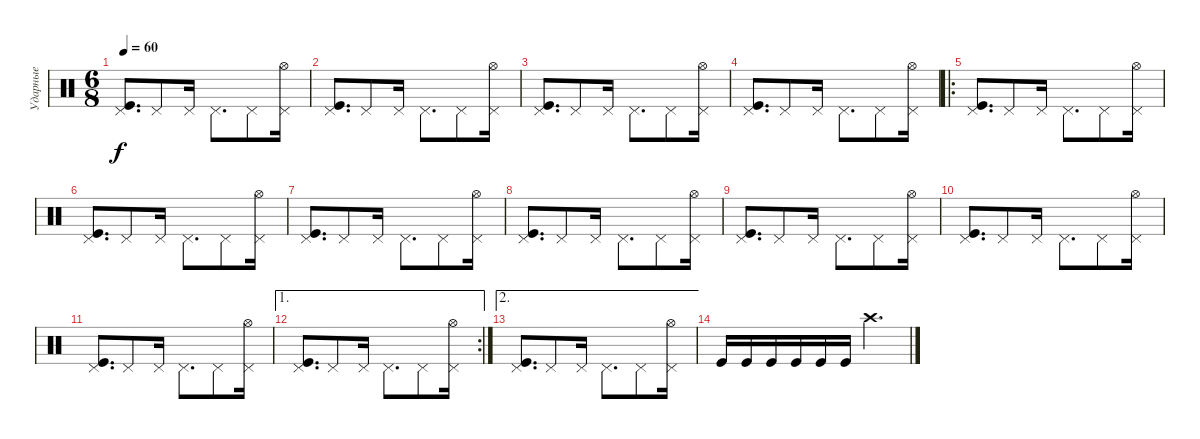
\track ("Ударные" "Ударные") {instrument percussion}
\staff {score}
\articulation defaults
\ts (6 8)
\tempo 60
\clef neutral
\ks c
("Pedal Hi-Hat (hit)" "Kick (hit)").8{d dy f} "Pedal Hi-Hat (hit)".8 "Pedal Hi-Hat (hit)".16 "Pedal Hi-Hat (hit)".8{d} "Pedal Hi-Hat (hit)".8 ("Pedal Hi-Hat (hit)" "Hi-Hat (open)").16 |
("Pedal Hi-Hat (hit)" "Kick (hit)").8{d} "Pedal Hi-Hat (hit)".8 "Pedal Hi-Hat (hit)".16 "Pedal Hi-Hat (hit)".8{d} "Pedal Hi-Hat (hit)".8 ("Pedal Hi-Hat (hit)" "Hi-Hat (open)").16 |
("Pedal Hi-Hat (hit)" "Kick (hit)").8{d} "Pedal Hi-Hat (hit)".8 "Pedal Hi-Hat (hit)".16 "Pedal Hi-Hat (hit)".8{d} "Pedal Hi-Hat (hit)".8 ("Pedal Hi-Hat (hit)" "Hi-Hat (open)").16 |
("Pedal Hi-Hat (hit)" "Kick (hit)").8{d} "Pedal Hi-Hat (hit)".8 "Pedal Hi-Hat (hit)".16 "Pedal Hi-Hat (hit)".8{d} "Pedal Hi-Hat (hit)".8 ("Pedal Hi-Hat (hit)" "Hi-Hat (open)").16 |
\ro
("Pedal Hi-Hat (hit)" "Kick (hit)").8{d} "Pedal Hi-Hat (hit)".8 "Pedal Hi-Hat (hit)".16 "Pedal Hi-Hat (hit)".8{d} "Pedal Hi-Hat (hit)".8 ("Pedal Hi-Hat (hit)" "Hi-Hat (open)").16 |
("Pedal Hi-Hat (hit)" "Kick (hit)").8{d} "Pedal Hi-Hat (hit)".8 "Pedal Hi-Hat (hit)".16 "Pedal Hi-Hat (hit)".8{d} "Pedal Hi-Hat (hit)".8 ("Pedal Hi-Hat (hit)" "Hi-Hat (open)").16 |
("Pedal Hi-Hat (hit)" "Kick (hit)").8{d} "Pedal Hi-Hat (hit)".8 "Pedal Hi-Hat (hit)".16 "Pedal Hi-Hat (hit)".8{d} "Pedal Hi-Hat (hit)".8 ("Pedal Hi-Hat (hit)" "Hi-Hat (open)").16 |
("Pedal Hi-Hat (hit)" "Kick (hit)").8{d} "Pedal Hi-Hat (hit)".8 "Pedal Hi-Hat (hit)".16 "Pedal Hi-Hat (hit)".8{d} "Pedal Hi-Hat (hit)".8 ("Pedal Hi-Hat (hit)" "Hi-Hat (open)").16 |
("Pedal Hi-Hat (hit)" "Kick (hit)").8{d} "Pedal Hi-Hat (hit)".8 "Pedal Hi-Hat (hit)".16 "Pedal Hi-Hat (hit)".8{d} "Pedal Hi-Hat (hit)".8 ("Pedal Hi-Hat (hit)" "Hi-Hat (open)").16 |
("Pedal Hi-Hat (hit)" "Kick (hit)").8{d} "Pedal Hi-Hat (hit)".8 "Pedal Hi-Hat (hit)".16 "Pedal Hi-Hat (hit)".8{d} "Pedal Hi-Hat (hit)".8 ("Pedal Hi-Hat (hit)" "Hi-Hat (open)").16 |
("Pedal Hi-Hat (hit)" "Kick (hit)").8{d} "Pedal Hi-Hat (hit)".8 "Pedal Hi-Hat (hit)".16 "Pedal Hi-Hat (hit)".8{d} "Pedal Hi-Hat (hit)".8 ("Pedal Hi-Hat (hit)" "Hi-Hat (open)").16 |
\ae 1
\rc 2
("Pedal Hi-Hat (hit)" "Kick (hit)").8{d} "Pedal Hi-Hat (hit)".8 "Pedal Hi-Hat (hit)".16 "Pedal Hi-Hat (hit)".8{d} "Pedal Hi-Hat (hit)".8 ("Pedal Hi-Hat (hit)" "Hi-Hat (open)").16 |
\ae 2
("Pedal Hi-Hat (hit)" "Kick (hit)").8{d} "Pedal Hi-Hat (hit)".8 "Pedal Hi-Hat (hit)".16 "Pedal Hi-Hat (hit)".8{d} "Pedal Hi-Hat (hit)".8 ("Pedal Hi-Hat (hit)" "Hi-Hat (open)").16 |
"Kick (hit)".16 "Kick (hit)".16 "Kick (hit)".16 "Kick (hit)".16 "Kick (hit)".16 "Kick (hit)".16 "Crash high (hit)".4{d}
